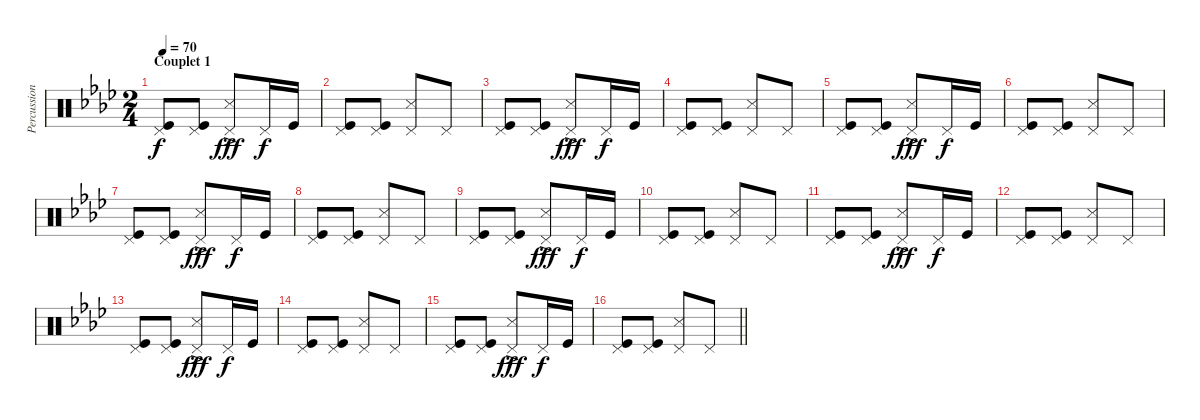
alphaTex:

\track ("Percussions" "Percussion") {instrument percussion}
\staff {score}
\articulation defaults
\ts (2 4)
\section ("" "Couplet 1")
\tempo 70
\clef neutral
\ks fminor
("Kick (hit)" "Pedal Hi-Hat (hit)").8{dy f} ("Kick (hit)" "Pedal Hi-Hat (hit)").8 ("Snare (side stick) 3"{ac} "Pedal Hi-Hat (hit)").8{dy fff} "Pedal Hi-Hat (hit)".16{dy f} "Kick (hit)".16 |
("Kick (hit)" "Pedal Hi-Hat (hit)").8 ("Kick (hit)" "Pedal Hi-Hat (hit)").8 ("Snare (side stick) 3" "Pedal Hi-Hat (hit)").8 "Pedal Hi-Hat (hit)".8 |
("Kick (hit)" "Pedal Hi-Hat (hit)").8 ("Kick (hit)" "Pedal Hi-Hat (hit)").8 ("Snare (side stick) 3"{ac} "Pedal Hi-Hat (hit)").8{dy fff} "Pedal Hi-Hat (hit)".16{dy f} "Kick (hit)".16 |
("Kick (hit)" "Pedal Hi-Hat (hit)").8 ("Kick (hit)" "Pedal Hi-Hat (hit)").8 ("Snare (side stick) 3" "Pedal Hi-Hat (hit)").8 "Pedal Hi-Hat (hit)".8 |
("Kick (hit)" "Pedal Hi-Hat (hit)").8 ("Kick (hit)" "Pedal Hi-Hat (hit)").8 ("Snare (side stick) 3"{ac} "Pedal Hi-Hat (hit)").8{dy fff} "Pedal Hi-Hat (hit)".16{dy f} "Kick (hit)".16 |
("Kick (hit)" "Pedal Hi-Hat (hit)").8 ("Kick (hit)" "Pedal Hi-Hat (hit)").8 ("Snare (side stick) 3" "Pedal Hi-Hat (hit)").8 "Pedal Hi-Hat (hit)".8 |
("Kick (hit)" "Pedal Hi-Hat (hit)").8 ("Kick (hit)" "Pedal Hi-Hat (hit)").8 ("Snare (side stick) 3"{ac} "Pedal Hi-Hat (hit)").8{dy fff} "Pedal Hi-Hat (hit)".16{dy f} "Kick (hit)".16 |
("Kick (hit)" "Pedal Hi-Hat (hit)").8 ("Kick (hit)" "Pedal Hi-Hat (hit)").8 ("Snare (side stick) 3" "Pedal Hi-Hat (hit)").8 "Pedal Hi-Hat (hit)".8 |
("Kick (hit)" "Pedal Hi-Hat (hit)").8 ("Kick (hit)" "Pedal Hi-Hat (hit)").8 ("Snare (side stick) 3"{ac} "Pedal Hi-Hat (hit)").8{dy fff} "Pedal Hi-Hat (hit)".16{dy f} "Kick (hit)".16 |
("Kick (hit)" "Pedal Hi-Hat (hit)").8 ("Kick (hit)" "Pedal Hi-Hat (hit)").8 ("Snare (side stick) 3" "Pedal Hi-Hat (hit)").8 "Pedal Hi-Hat (hit)".8 |
("Kick (hit)" "Pedal Hi-Hat (hit)").8 ("Kick (hit)" "Pedal Hi-Hat (hit)").8 ("Snare (side stick) 3"{ac} "Pedal Hi-Hat (hit)").8{dy fff} "Pedal Hi-Hat (hit)".16{dy f} "Kick (hit)".16 |
("Kick (hit)" "Pedal Hi-Hat (hit)").8 ("Kick (hit)" "Pedal Hi-Hat (hit)").8 ("Snare (side stick) 3" "Pedal Hi-Hat (hit)").8 "Pedal Hi-Hat (hit)".8 |
("Kick (hit)" "Pedal Hi-Hat (hit)").8 ("Kick (hit)" "Pedal Hi-Hat (hit)").8 ("Snare (side stick) 3"{ac} "Pedal Hi-Hat (hit)").8{dy fff} "Pedal Hi-Hat (hit)".16{dy f} "Kick (hit)".16 |
("Kick (hit)" "Pedal Hi-Hat (hit)").8 ("Kick (hit)" "Pedal Hi-Hat (hit)").8 ("Snare (side stick) 3" "Pedal Hi-Hat (hit)").8 "Pedal Hi-Hat (hit)".8 |
("Kick (hit)" "Pedal Hi-Hat (hit)").8 ("Kick (hit)" "Pedal Hi-Hat (hit)").8 ("Snare (side stick) 3"{ac} "Pedal Hi-Hat (hit)").8{dy fff} "Pedal Hi-Hat (hit)".16{dy f} "Kick (hit)".16 |
\barLineRight lightlight
("Kick (hit)" "Pedal Hi-Hat (hit)").8 ("Kick (hit)" "Pedal Hi-Hat (hit)").8 ("Snare (side stick) 3" "Pedal Hi-Hat (hit)").8 "Pedal Hi-Hat (hit)".8
